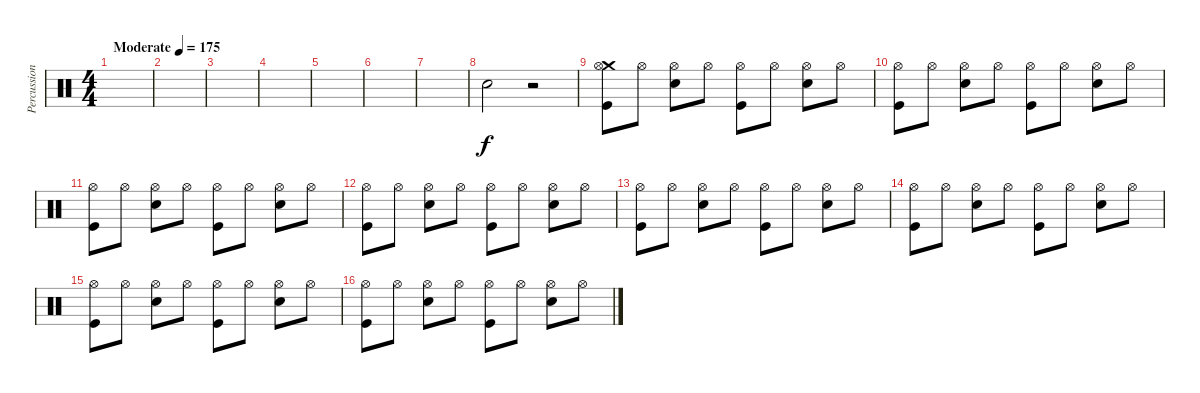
\track ("Percussion" "Percussion") {instrument percussion}
\staff {score}
\articulation defaults
\ts (4 4)
\tempo (175 "Moderate")
\clef neutral
\ks c
|
|
|
|
|
|
|
"Snare (hit) 2".2 r.2 |
("Crash medium (hit)" "Hi-Hat (open)" "Kick (hit)").8 "Hi-Hat (open)".8 ("Hi-Hat (open)" "Snare (hit) 2").8 "Hi-Hat (open)".8 ("Hi-Hat (open)" "Kick (hit)").8 "Hi-Hat (open)".8 ("Hi-Hat (open)" "Snare (hit) 2").8 "Hi-Hat (open)".8 |
("Hi-Hat (open)" "Kick (hit)").8 "Hi-Hat (open)".8 ("Hi-Hat (open)" "Snare (hit) 2").8 "Hi-Hat (open)".8 ("Hi-Hat (open)" "Kick (hit)").8 "Hi-Hat (open)".8 ("Hi-Hat (open)" "Snare (hit) 2").8 "Hi-Hat (open)".8 |
("Hi-Hat (open)" "Kick (hit)").8 "Hi-Hat (open)".8 ("Hi-Hat (open)" "Snare (hit) 2").8 "Hi-Hat (open)".8 ("Hi-Hat (open)" "Kick (hit)").8 "Hi-Hat (open)".8 ("Hi-Hat (open)" "Snare (hit) 2").8 "Hi-Hat (open)".8 |
("Hi-Hat (open)" "Kick (hit)").8 "Hi-Hat (open)".8 ("Hi-Hat (open)" "Snare (hit) 2").8 "Hi-Hat (open)".8 ("Hi-Hat (open)" "Kick (hit)").8 "Hi-Hat (open)".8 ("Hi-Hat (open)" "Snare (hit) 2").8 "Hi-Hat (open)".8 |
("Hi-Hat (open)" "Kick (hit)").8 "Hi-Hat (open)".8 ("Hi-Hat (open)" "Snare (hit) 2").8 "Hi-Hat (open)".8 ("Hi-Hat (open)" "Kick (hit)").8 "Hi-Hat (open)".8 ("Hi-Hat (open)" "Snare (hit) 2").8 "Hi-Hat (open)".8 |
("Hi-Hat (open)" "Kick (hit)").8 "Hi-Hat (open)".8 ("Hi-Hat (open)" "Snare (hit) 2").8 "Hi-Hat (open)".8 ("Hi-Hat (open)" "Kick (hit)").8 "Hi-Hat (open)".8 ("Hi-Hat (open)" "Snare (hit) 2").8 "Hi-Hat (open)".8 |
("Hi-Hat (open)" "Kick (hit)").8 "Hi-Hat (open)".8 ("Hi-Hat (open)" "Snare (hit) 2").8 "Hi-Hat (open)".8 ("Hi-Hat (open)" "Kick (hit)").8 "Hi-Hat (open)".8 ("Hi-Hat (open)" "Snare (hit) 2").8 "Hi-Hat (open)".8 |
("Hi-Hat (open)" "Kick (hit)").8 "Hi-Hat (open)".8 ("Hi-Hat (open)" "Snare (hit) 2").8 "Hi-Hat (open)".8 ("Hi-Hat (open)" "Kick (hit)").8 "Hi-Hat (open)".8 ("Hi-Hat (open)" "Snare (hit) 2").8 "Hi-Hat (open)".8
